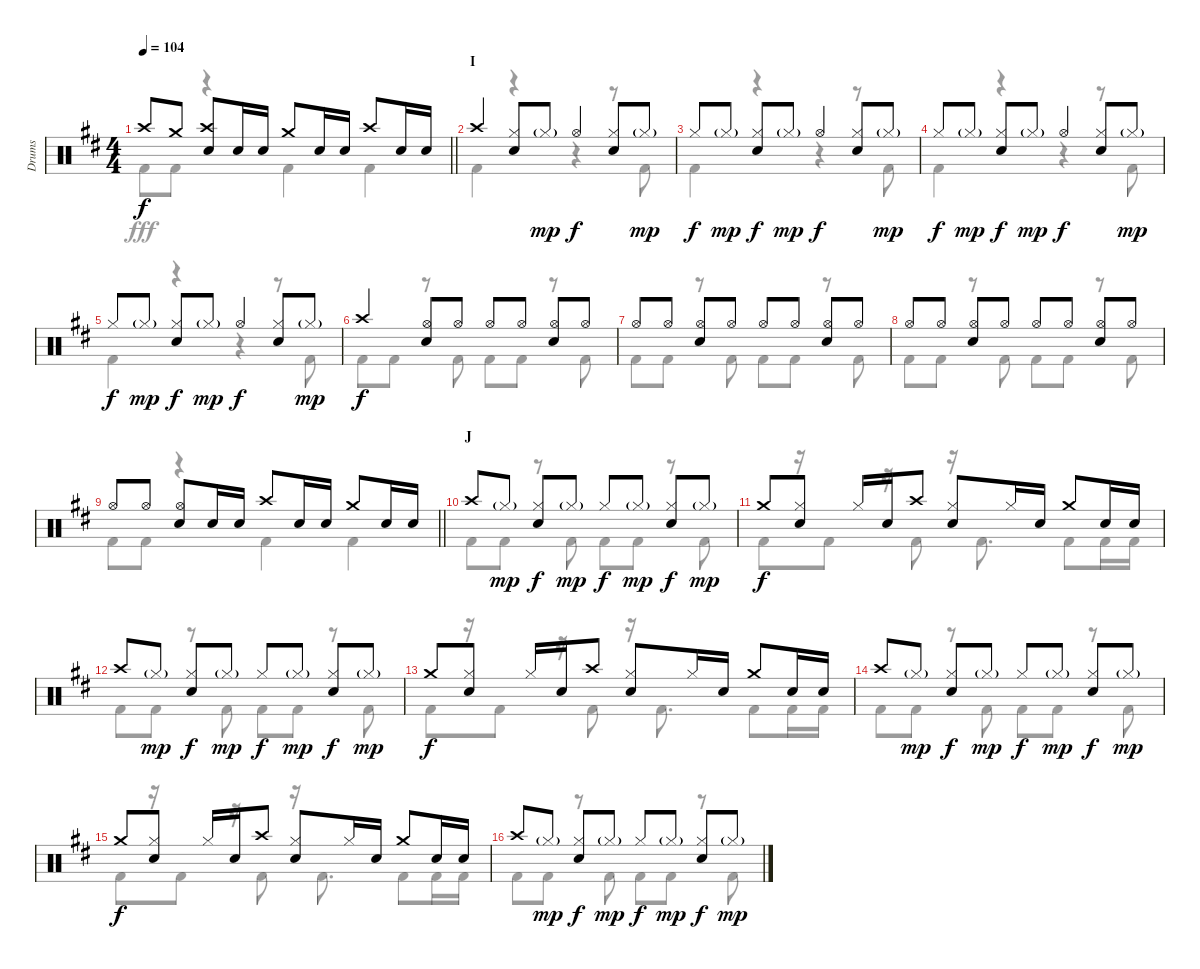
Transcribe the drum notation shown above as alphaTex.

\track ("Drums" "Drums") {instrument percussion}
\staff {score}
\articulation defaults
\voice
\ts (4 4)
\tempo 104
\clef neutral
\barLineRight lightlight
\ks d "Crash high (hit)".8{dy f} "Crash medium (hit)".8
("Crash high (hit)" "Snare (hit) 2").8 "Snare (hit) 2".16 "Snare (hit) 2".16 "Crash medium (hit)".8 "Snare (hit) 2".16 "Snare (hit) 2".16 "Crash high (hit)".8 "Snare (hit) 2".16 "Snare (hit) 2".16 |
\section ("" "I")
"Crash high (hit)".4 ("Hi-Hat (closed)" "Snare (hit) 2").8 "Hi-Hat (closed)"{g}.8{dy mp} "Hi-Hat (open)".4{dy f} ("Hi-Hat (closed)" "Snare (hit) 2").8 "Hi-Hat (closed)"{g}.8{dy mp} |
"Hi-Hat (closed)".8{dy f} "Hi-Hat (closed)"{g}.8{dy mp} ("Hi-Hat (closed)" "Snare (hit) 2").8{dy f} "Hi-Hat (closed)"{g}.8{dy mp} "Hi-Hat (open)".4{dy f} ("Hi-Hat (closed)" "Snare (hit) 2").8 "Hi-Hat (closed)"{g}.8{dy mp} |
"Hi-Hat (closed)".8{dy f} "Hi-Hat (closed)"{g}.8{dy mp} ("Hi-Hat (closed)" "Snare (hit) 2").8{dy f} "Hi-Hat (closed)"{g}.8{dy mp} "Hi-Hat (open)".4{dy f} ("Hi-Hat (closed)" "Snare (hit) 2").8 "Hi-Hat (closed)"{g}.8{dy mp} |
"Hi-Hat (closed)".8{dy f} "Hi-Hat (closed)"{g}.8{dy mp} ("Hi-Hat (closed)" "Snare (hit) 2").8{dy f} "Hi-Hat (closed)"{g}.8{dy mp} "Hi-Hat (open)".4{dy f} ("Hi-Hat (closed)" "Snare (hit) 2").8 "Hi-Hat (closed)"{g}.8{dy mp} |
"Crash high (hit)".4{dy f} ("Hi-Hat (open)" "Snare (hit) 2").8 "Hi-Hat (open)".8 "Hi-Hat (open)".8 "Hi-Hat (open)".8 ("Hi-Hat (open)" "Snare (hit) 2").8 "Hi-Hat (open)".8 |
"Hi-Hat (open)".8 "Hi-Hat (open)".8 ("Hi-Hat (open)" "Snare (hit) 2").8 "Hi-Hat (open)".8 "Hi-Hat (open)".8 "Hi-Hat (open)".8 ("Hi-Hat (open)" "Snare (hit) 2").8 "Hi-Hat (open)".8 |
"Hi-Hat (open)".8 "Hi-Hat (open)".8 ("Hi-Hat (open)" "Snare (hit) 2").8 "Hi-Hat (open)".8 "Hi-Hat (open)".8 "Hi-Hat (open)".8 ("Hi-Hat (open)" "Snare (hit) 2").8 "Hi-Hat (open)".8 |
\barLineRight lightlight "Hi-Hat (open)".8 "Hi-Hat (open)".8
("Hi-Hat (open)" "Snare (hit) 2").8 "Snare (hit) 2".16 "Snare (hit) 2".16 "Crash high (hit)".8 "Snare (hit) 2".16 "Snare (hit) 2".16 "Crash medium (hit)".8 "Snare (hit) 2".16 "Snare (hit) 2".16 |
\section ("" "J")
"Crash high (hit)".8 "Hi-Hat (closed)"{g}.8{dy mp} ("Hi-Hat (closed)" "Snare (hit) 2").8{dy f} "Hi-Hat (closed)"{g}.8{dy mp} "Hi-Hat (closed)".8{dy f} "Hi-Hat (closed)"{g}.8{dy mp} ("Hi-Hat (closed)" "Snare (hit) 2").8{dy f} "Hi-Hat (closed)"{g}.8{dy mp} |
"Crash medium (hit)".8{dy f} ("Hi-Hat (closed)" "Snare (hit) 2").8 "Hi-Hat (closed)".16 "Snare (hit) 2".16 "Crash high (hit)".8 ("Hi-Hat (closed)" "Snare (hit) 2").8 "Hi-Hat (closed)".16 "Snare (hit) 2".16 "Crash medium (hit)".8 "Snare (hit) 2".16 "Snare (hit) 2".16 |
"Crash high (hit)".8 "Hi-Hat (closed)"{g}.8{dy mp} ("Hi-Hat (closed)" "Snare (hit) 2").8{dy f} "Hi-Hat (closed)"{g}.8{dy mp} "Hi-Hat (closed)".8{dy f} "Hi-Hat (closed)"{g}.8{dy mp} ("Hi-Hat (closed)" "Snare (hit) 2").8{dy f} "Hi-Hat (closed)"{g}.8{dy mp} |
"Crash medium (hit)".8{dy f} ("Hi-Hat (closed)" "Snare (hit) 2").8 "Hi-Hat (closed)".16 "Snare (hit) 2".16 "Crash high (hit)".8 ("Hi-Hat (closed)" "Snare (hit) 2").8 "Hi-Hat (closed)".16 "Snare (hit) 2".16 "Crash medium (hit)".8 "Snare (hit) 2".16 "Snare (hit) 2".16 |
"Crash high (hit)".8 "Hi-Hat (closed)"{g}.8{dy mp} ("Hi-Hat (closed)" "Snare (hit) 2").8{dy f} "Hi-Hat (closed)"{g}.8{dy mp} "Hi-Hat (closed)".8{dy f} "Hi-Hat (closed)"{g}.8{dy mp} ("Hi-Hat (closed)" "Snare (hit) 2").8{dy f} "Hi-Hat (closed)"{g}.8{dy mp} |
"Crash medium (hit)".8{dy f} ("Hi-Hat (closed)" "Snare (hit) 2").8 "Hi-Hat (closed)".16 "Snare (hit) 2".16 "Crash high (hit)".8 ("Hi-Hat (closed)" "Snare (hit) 2").8 "Hi-Hat (closed)".16 "Snare (hit) 2".16 "Crash medium (hit)".8 "Snare (hit) 2".16 "Snare (hit) 2".16 |
"Crash high (hit)".8 "Hi-Hat (closed)"{g}.8{dy mp} ("Hi-Hat (closed)" "Snare (hit) 2").8{dy f} "Hi-Hat (closed)"{g}.8{dy mp} "Hi-Hat (closed)".8{dy f} "Hi-Hat (closed)"{g}.8{dy mp} ("Hi-Hat (closed)" "Snare (hit) 2").8{dy f} "Hi-Hat (closed)"{g}.8{dy mp}
\voice
\clef neutral
\ottava regular
\simile none
\barLineRight lightlight
\ks d "Kick (hit) 2".8{dy fff} "Kick (hit) 2".8
r.4 "Kick (hit) 2".4 "Kick (hit) 2".4 |
"Kick (hit) 2".4 r.4 r.4 r.8 "Kick (hit) 2".8 |
"Kick (hit) 2".4 r.4 r.4 r.8 "Kick (hit) 2".8 |
"Kick (hit) 2".4 r.4 r.4 r.8 "Kick (hit) 2".8 |
"Kick (hit) 2".4 r.4 r.4 r.8 "Kick (hit) 2".8 |
"Kick (hit) 2".8 "Kick (hit) 2".8 r.8 "Kick (hit) 2".8 "Kick (hit) 2".8 "Kick (hit) 2".8 r.8 "Kick (hit) 2".8 |
"Kick (hit) 2".8 "Kick (hit) 2".8 r.8 "Kick (hit) 2".8 "Kick (hit) 2".8 "Kick (hit) 2".8 r.8 "Kick (hit) 2".8 |
"Kick (hit) 2".8 "Kick (hit) 2".8 r.8 "Kick (hit) 2".8 "Kick (hit) 2".8 "Kick (hit) 2".8 r.8 "Kick (hit) 2".8 |
\barLineRight lightlight "Kick (hit) 2".8 "Kick (hit) 2".8
r.4 "Kick (hit) 2".4 "Kick (hit) 2".4 |
"Kick (hit) 2".8 "Kick (hit) 2".8 r.8 "Kick (hit) 2".8 "Kick (hit) 2".8 "Kick (hit) 2".8 r.8 "Kick (hit) 2".8 |
"Kick (hit) 2".8 r.16 "Kick (hit) 2".8 r.16 "Kick (hit) 2".8 r.16 "Kick (hit) 2".8{d} "Kick (hit) 2".8 "Kick (hit) 2".16 "Kick (hit) 2".16 |
"Kick (hit) 2".8 "Kick (hit) 2".8 r.8 "Kick (hit) 2".8 "Kick (hit) 2".8 "Kick (hit) 2".8 r.8 "Kick (hit) 2".8 |
"Kick (hit) 2".8 r.16 "Kick (hit) 2".8 r.16 "Kick (hit) 2".8 r.16 "Kick (hit) 2".8{d} "Kick (hit) 2".8 "Kick (hit) 2".16 "Kick (hit) 2".16 |
"Kick (hit) 2".8 "Kick (hit) 2".8 r.8 "Kick (hit) 2".8 "Kick (hit) 2".8 "Kick (hit) 2".8 r.8 "Kick (hit) 2".8 |
"Kick (hit) 2".8 r.16 "Kick (hit) 2".8 r.16 "Kick (hit) 2".8 r.16 "Kick (hit) 2".8{d} "Kick (hit) 2".8 "Kick (hit) 2".16 "Kick (hit) 2".16 |
"Kick (hit) 2".8 "Kick (hit) 2".8 r.8 "Kick (hit) 2".8 "Kick (hit) 2".8 "Kick (hit) 2".8 r.8 "Kick (hit) 2".8
